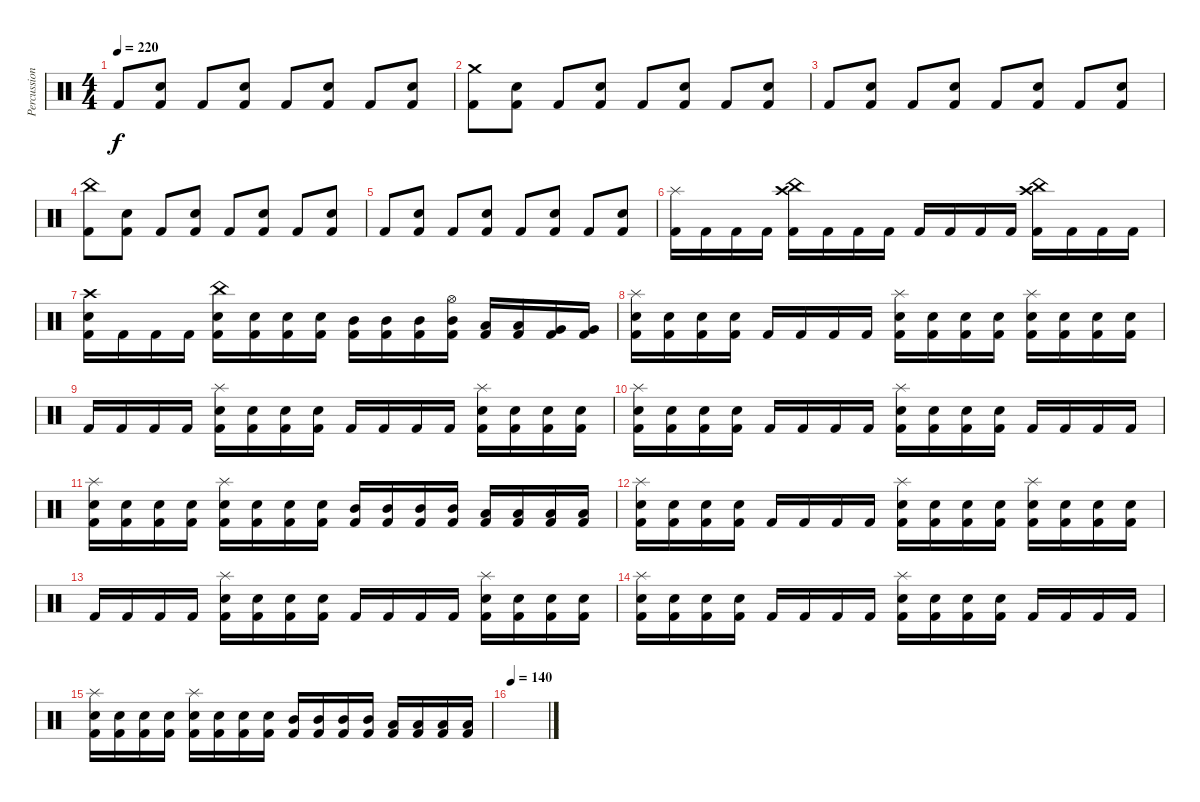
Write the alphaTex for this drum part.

\track ("Percussion" "Percussion") {instrument percussion}
\staff {score}
\articulation defaults
\ts (4 4)
\tempo 220
\clef neutral
\ks c "Kick (hit) 2".8{dy f}
("Electric Snare (hit)" "Kick (hit) 2").8 "Kick (hit) 2".8 ("Electric Snare (hit)" "Kick (hit) 2").8 "Kick (hit) 2".8 ("Electric Snare (hit)" "Kick (hit) 2").8 "Kick (hit) 2".8 ("Electric Snare (hit)" "Kick (hit) 2").8 |
("Crash medium (hit)" "Kick (hit) 2").8 ("Electric Snare (hit)" "Kick (hit) 2").8 "Kick (hit) 2".8 ("Electric Snare (hit)" "Kick (hit) 2").8 "Kick (hit) 2".8 ("Electric Snare (hit)" "Kick (hit) 2").8 "Kick (hit) 2".8 ("Electric Snare (hit)" "Kick (hit) 2").8 |
"Kick (hit) 2".8 ("Electric Snare (hit)" "Kick (hit) 2").8 "Kick (hit) 2".8 ("Electric Snare (hit)" "Kick (hit) 2").8 "Kick (hit) 2".8 ("Electric Snare (hit)" "Kick (hit) 2").8 "Kick (hit) 2".8 ("Electric Snare (hit)" "Kick (hit) 2").8 |
("China (hit)" "Kick (hit) 2").8 ("Electric Snare (hit)" "Kick (hit) 2").8 "Kick (hit) 2".8 ("Electric Snare (hit)" "Kick (hit) 2").8 "Kick (hit) 2".8 ("Electric Snare (hit)" "Kick (hit) 2").8 "Kick (hit) 2".8 ("Electric Snare (hit)" "Kick (hit) 2").8 |
"Kick (hit) 2".8 ("Electric Snare (hit)" "Kick (hit) 2").8 "Kick (hit) 2".8 ("Electric Snare (hit)" "Kick (hit) 2").8 "Kick (hit) 2".8 ("Electric Snare (hit)" "Kick (hit) 2").8 "Kick (hit) 2".8 ("Electric Snare (hit)" "Kick (hit) 2").8 |
("Splash (hit)" "Kick (hit) 2").16 "Kick (hit) 2".16 "Kick (hit) 2".16 "Kick (hit) 2".16 ("Crash high (hit)" "China (hit)" "Kick (hit) 2").16 "Kick (hit) 2".16 "Kick (hit) 2".16 "Kick (hit) 2".16 "Kick (hit) 2".16 "Kick (hit) 2".16 "Kick (hit) 2".16 "Kick (hit) 2".16 ("Crash high (hit)" "China (hit)" "Kick (hit) 2").16 "Kick (hit) 2".16 "Kick (hit) 2".16 "Kick (hit) 2".16 |
("Crash high (hit)" "Electric Snare (hit)" "Kick (hit) 2").16 "Kick (hit) 2".16 "Kick (hit) 2".16 "Kick (hit) 2".16 ("China (hit)" "Electric Snare (hit)" "Kick (hit) 2").16 ("Electric Snare (hit)" "Kick (hit) 2").16 ("Electric Snare (hit)" "Kick (hit) 2").16 ("Electric Snare (hit)" "Kick (hit) 2").16 ("Mid Tom (hit)" "Kick (hit) 2").16 ("Mid Tom (hit)" "Kick (hit) 2").16 ("Mid Tom (hit)" "Kick (hit) 2").16 ("Hi-Hat (open)" "Mid Tom (hit)" "Kick (hit) 2").16 ("Low Tom (hit)" "Kick (hit) 2").16 ("Low Tom (hit)" "Kick (hit) 2").16 ("Very Low Tom (hit)" "Kick (hit) 2").16 ("Very Low Tom (hit)" "Kick (hit) 2").16 |
("Splash (hit)" "Electric Snare (hit)" "Kick (hit) 2").16 ("Electric Snare (hit)" "Kick (hit) 2").16 ("Electric Snare (hit)" "Kick (hit) 2").16 ("Electric Snare (hit)" "Kick (hit) 2").16 "Kick (hit) 2".16 "Kick (hit) 2".16 "Kick (hit) 2".16 "Kick (hit) 2".16 ("Splash (hit)" "Electric Snare (hit)" "Kick (hit) 2").16 ("Electric Snare (hit)" "Kick (hit) 2").16 ("Electric Snare (hit)" "Kick (hit) 2").16 ("Electric Snare (hit)" "Kick (hit) 2").16 ("Splash (hit)" "Electric Snare (hit)" "Kick (hit) 2").16 ("Electric Snare (hit)" "Kick (hit) 2").16 ("Electric Snare (hit)" "Kick (hit) 2").16 ("Electric Snare (hit)" "Kick (hit) 2").16 |
"Kick (hit) 2".16 "Kick (hit) 2".16 "Kick (hit) 2".16 "Kick (hit) 2".16 ("Splash (hit)" "Electric Snare (hit)" "Kick (hit) 2").16 ("Electric Snare (hit)" "Kick (hit) 2").16 ("Electric Snare (hit)" "Kick (hit) 2").16 ("Electric Snare (hit)" "Kick (hit) 2").16 "Kick (hit) 2".16 "Kick (hit) 2".16 "Kick (hit) 2".16 "Kick (hit) 2".16 ("Splash (hit)" "Electric Snare (hit)" "Kick (hit) 2").16 ("Electric Snare (hit)" "Kick (hit) 2").16 ("Electric Snare (hit)" "Kick (hit) 2").16 ("Electric Snare (hit)" "Kick (hit) 2").16 |
("Splash (hit)" "Electric Snare (hit)" "Kick (hit) 2").16 ("Electric Snare (hit)" "Kick (hit) 2").16 ("Electric Snare (hit)" "Kick (hit) 2").16 ("Electric Snare (hit)" "Kick (hit) 2").16 "Kick (hit) 2".16 "Kick (hit) 2".16 "Kick (hit) 2".16 "Kick (hit) 2".16 ("Splash (hit)" "Electric Snare (hit)" "Kick (hit) 2").16 ("Electric Snare (hit)" "Kick (hit) 2").16 ("Electric Snare (hit)" "Kick (hit) 2").16 ("Electric Snare (hit)" "Kick (hit) 2").16 "Kick (hit) 2".16 "Kick (hit) 2".16 "Kick (hit) 2".16 "Kick (hit) 2".16 |
("Splash (hit)" "Electric Snare (hit)" "Kick (hit) 2").16 ("Electric Snare (hit)" "Kick (hit) 2").16 ("Electric Snare (hit)" "Kick (hit) 2").16 ("Electric Snare (hit)" "Kick (hit) 2").16 ("Splash (hit)" "Electric Snare (hit)" "Kick (hit) 2").16 ("Electric Snare (hit)" "Kick (hit) 2").16 ("Electric Snare (hit)" "Kick (hit) 2").16 ("Electric Snare (hit)" "Kick (hit) 2").16 ("Mid Tom (hit)" "Kick (hit) 2").16 ("Mid Tom (hit)" "Kick (hit) 2").16 ("Mid Tom (hit)" "Kick (hit) 2").16 ("Mid Tom (hit)" "Kick (hit) 2").16 ("Low Tom (hit)" "Kick (hit) 2").16 ("Low Tom (hit)" "Kick (hit) 2").16 ("Low Tom (hit)" "Kick (hit) 2").16 ("Low Tom (hit)" "Kick (hit) 2").16 |
("Splash (hit)" "Electric Snare (hit)" "Kick (hit) 2").16 ("Electric Snare (hit)" "Kick (hit) 2").16 ("Electric Snare (hit)" "Kick (hit) 2").16 ("Electric Snare (hit)" "Kick (hit) 2").16 "Kick (hit) 2".16 "Kick (hit) 2".16 "Kick (hit) 2".16 "Kick (hit) 2".16 ("Splash (hit)" "Electric Snare (hit)" "Kick (hit) 2").16 ("Electric Snare (hit)" "Kick (hit) 2").16 ("Electric Snare (hit)" "Kick (hit) 2").16 ("Electric Snare (hit)" "Kick (hit) 2").16 ("Splash (hit)" "Electric Snare (hit)" "Kick (hit) 2").16 ("Electric Snare (hit)" "Kick (hit) 2").16 ("Electric Snare (hit)" "Kick (hit) 2").16 ("Electric Snare (hit)" "Kick (hit) 2").16 |
"Kick (hit) 2".16 "Kick (hit) 2".16 "Kick (hit) 2".16 "Kick (hit) 2".16 ("Splash (hit)" "Electric Snare (hit)" "Kick (hit) 2").16 ("Electric Snare (hit)" "Kick (hit) 2").16 ("Electric Snare (hit)" "Kick (hit) 2").16 ("Electric Snare (hit)" "Kick (hit) 2").16 "Kick (hit) 2".16 "Kick (hit) 2".16 "Kick (hit) 2".16 "Kick (hit) 2".16 ("Splash (hit)" "Electric Snare (hit)" "Kick (hit) 2").16 ("Electric Snare (hit)" "Kick (hit) 2").16 ("Electric Snare (hit)" "Kick (hit) 2").16 ("Electric Snare (hit)" "Kick (hit) 2").16 |
("Splash (hit)" "Electric Snare (hit)" "Kick (hit) 2").16 ("Electric Snare (hit)" "Kick (hit) 2").16 ("Electric Snare (hit)" "Kick (hit) 2").16 ("Electric Snare (hit)" "Kick (hit) 2").16 "Kick (hit) 2".16 "Kick (hit) 2".16 "Kick (hit) 2".16 "Kick (hit) 2".16 ("Splash (hit)" "Electric Snare (hit)" "Kick (hit) 2").16 ("Electric Snare (hit)" "Kick (hit) 2").16 ("Electric Snare (hit)" "Kick (hit) 2").16 ("Electric Snare (hit)" "Kick (hit) 2").16 "Kick (hit) 2".16 "Kick (hit) 2".16 "Kick (hit) 2".16 "Kick (hit) 2".16 |
("Splash (hit)" "Electric Snare (hit)" "Kick (hit) 2").16 ("Electric Snare (hit)" "Kick (hit) 2").16 ("Electric Snare (hit)" "Kick (hit) 2").16 ("Electric Snare (hit)" "Kick (hit) 2").16 ("Splash (hit)" "Electric Snare (hit)" "Kick (hit) 2").16 ("Electric Snare (hit)" "Kick (hit) 2").16 ("Electric Snare (hit)" "Kick (hit) 2").16 ("Electric Snare (hit)" "Kick (hit) 2").16 ("Mid Tom (hit)" "Kick (hit) 2").16 ("Mid Tom (hit)" "Kick (hit) 2").16 ("Mid Tom (hit)" "Kick (hit) 2").16 ("Mid Tom (hit)" "Kick (hit) 2").16 ("Low Tom (hit)" "Kick (hit) 2").16 ("Low Tom (hit)" "Kick (hit) 2").16 ("Low Tom (hit)" "Kick (hit) 2").16 ("Low Tom (hit)" "Kick (hit) 2").16 |
\tempo 140
